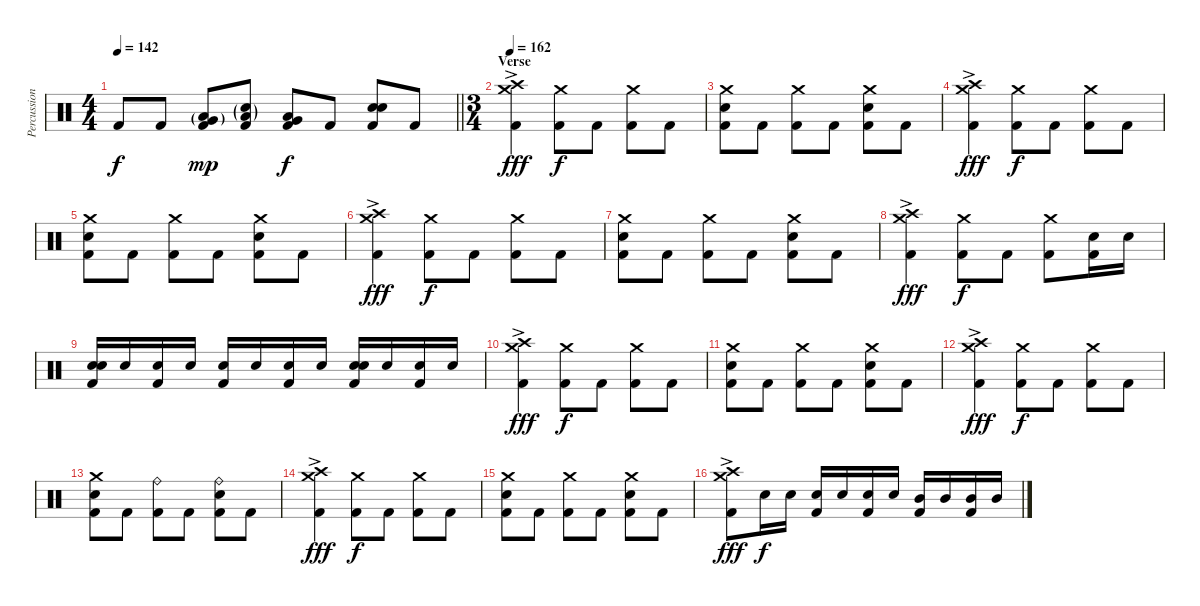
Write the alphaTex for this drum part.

\track ("Percussion" "Percussion") {instrument percussion}
\staff {score}
\articulation defaults
\ts (4 4)
\tempo 142
\clef neutral
\barLineRight lightlight
\ks c "Kick (hit) 2".8{dy f} "Kick (hit) 2".8
("Very Low Tom (hit)"{g} "Low Floor Tom (hit)"{g} "Kick (hit) 2").8{dy mp} ("Electric Snare (hit)"{g} "Low Floor Tom (hit)"{g} "Kick (hit) 2").8 ("Very Low Tom (hit)" "Low Floor Tom (hit)" "Kick (hit) 2").8{dy f} "Kick (hit) 2".8 ("Electric Snare (hit)" "Electric Snare (hit)" "Kick (hit) 2").8{bd 60} "Kick (hit) 2".8 |
\ts (3 4)
\section ("" "Verse")
\tempo 162
("Crash high (hit)"{ac} "Crash medium (hit)" "Kick (hit) 2").4{dy fff} ("Crash medium (hit)" "Kick (hit) 2").8{dy f} "Kick (hit) 2".8 ("Crash medium (hit)" "Kick (hit) 2").8 "Kick (hit) 2".8 |
("Crash medium (hit)" "Electric Snare (hit)" "Kick (hit) 2").8 "Kick (hit) 2".8 ("Crash medium (hit)" "Kick (hit) 2").8 "Kick (hit) 2".8 ("Crash medium (hit)" "Electric Snare (hit)" "Kick (hit) 2").8 "Kick (hit) 2".8 |
("Crash high (hit)"{ac} "Crash medium (hit)" "Kick (hit) 2").4{dy fff} ("Crash medium (hit)" "Kick (hit) 2").8{dy f} "Kick (hit) 2".8 ("Crash medium (hit)" "Kick (hit) 2").8 "Kick (hit) 2".8 |
("Crash medium (hit)" "Electric Snare (hit)" "Kick (hit) 2").8 "Kick (hit) 2".8 ("Crash medium (hit)" "Kick (hit) 2").8 "Kick (hit) 2".8 ("Crash medium (hit)" "Electric Snare (hit)" "Kick (hit) 2").8 "Kick (hit) 2".8 |
("Crash high (hit)"{ac} "Crash medium (hit)" "Kick (hit) 2").4{dy fff} ("Crash medium (hit)" "Kick (hit) 2").8{dy f} "Kick (hit) 2".8 ("Crash medium (hit)" "Kick (hit) 2").8 "Kick (hit) 2".8 |
("Crash medium (hit)" "Electric Snare (hit)" "Kick (hit) 2").8 "Kick (hit) 2".8 ("Crash medium (hit)" "Kick (hit) 2").8 "Kick (hit) 2".8 ("Crash medium (hit)" "Electric Snare (hit)" "Kick (hit) 2").8 "Kick (hit) 2".8 |
("Crash high (hit)"{ac} "Crash medium (hit)" "Kick (hit) 2").4{dy fff} ("Crash medium (hit)" "Kick (hit) 2").8{dy f} "Kick (hit) 2".8 ("Crash medium (hit)" "Kick (hit) 2").8 ("Electric Snare (hit)" "Kick (hit) 2").16 "Electric Snare (hit)".16 |
("Electric Snare (hit)" "Electric Snare (hit)" "Kick (hit) 2").16{bd 60} "Electric Snare (hit)".16 ("Electric Snare (hit)" "Kick (hit) 2").16 "Electric Snare (hit)".16 ("Electric Snare (hit)" "Kick (hit) 2").16 "Electric Snare (hit)".16 ("Electric Snare (hit)" "Kick (hit) 2").16 "Electric Snare (hit)".16 ("Electric Snare (hit)" "Electric Snare (hit)" "Kick (hit) 2").16{bd 60} "Electric Snare (hit)".16 ("Electric Snare (hit)" "Kick (hit) 2").16 "Electric Snare (hit)".16 |
("Crash high (hit)"{ac} "Crash medium (hit)" "Kick (hit) 2").4{dy fff} ("Crash medium (hit)" "Kick (hit) 2").8{dy f} "Kick (hit) 2".8 ("Crash medium (hit)" "Kick (hit) 2").8 "Kick (hit) 2".8 |
("Crash medium (hit)" "Electric Snare (hit)" "Kick (hit) 2").8 "Kick (hit) 2".8 ("Crash medium (hit)" "Kick (hit) 2").8 "Kick (hit) 2".8 ("Crash medium (hit)" "Electric Snare (hit)" "Kick (hit) 2").8 "Kick (hit) 2".8 |
("Crash high (hit)"{ac} "Crash medium (hit)" "Kick (hit) 2").4{dy fff} ("Crash medium (hit)" "Kick (hit) 2").8{dy f} "Kick (hit) 2".8 ("Crash medium (hit)" "Kick (hit) 2").8 "Kick (hit) 2".8 |
("Crash medium (hit)" "Electric Snare (hit)" "Kick (hit) 2").8 "Kick (hit) 2".8 ("Ride (bell)" "Kick (hit) 2").8 "Kick (hit) 2".8 ("Ride (bell)" "Electric Snare (hit)" "Kick (hit) 2").8 "Kick (hit) 2".8 |
("Crash high (hit)"{ac} "Crash medium (hit)" "Kick (hit) 2").4{dy fff} ("Crash medium (hit)" "Kick (hit) 2").8{dy f} "Kick (hit) 2".8 ("Crash medium (hit)" "Kick (hit) 2").8 "Kick (hit) 2".8 |
("Crash medium (hit)" "Electric Snare (hit)" "Kick (hit) 2").8 "Kick (hit) 2".8 ("Crash medium (hit)" "Kick (hit) 2").8 "Kick (hit) 2".8 ("Crash medium (hit)" "Electric Snare (hit)" "Kick (hit) 2").8 "Kick (hit) 2".8 |
("Crash high (hit)"{ac} "Crash medium (hit)" "Kick (hit) 2").8{dy fff} "Electric Snare (hit)".16{dy f} "Electric Snare (hit)".16 ("Electric Snare (hit)" "Kick (hit) 2").16 "Electric Snare (hit)".16 ("Electric Snare (hit)" "Kick (hit) 2").16 "Electric Snare (hit)".16 ("Mid Tom (hit)" "Kick (hit) 2").16 "Mid Tom (hit)".16 ("Mid Tom (hit)" "Kick (hit) 2").16 "Mid Tom (hit)".16
